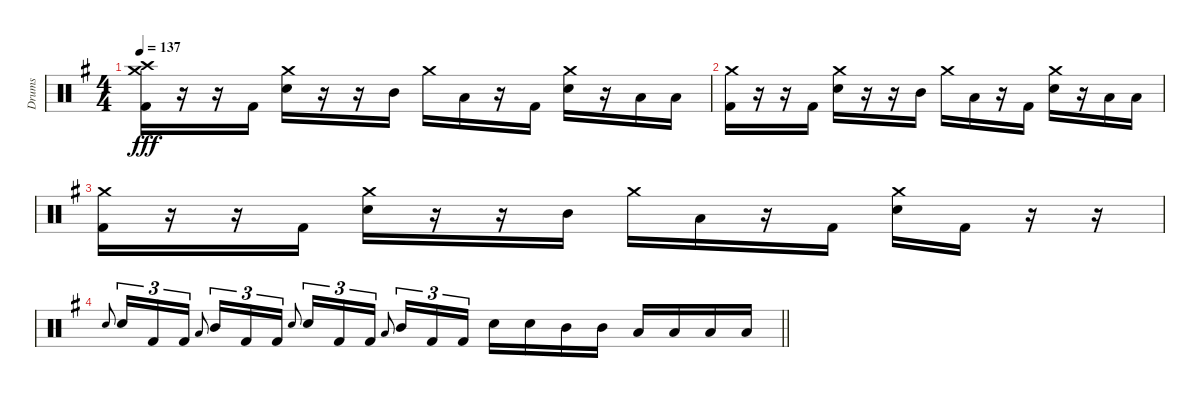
\track ("Drums" "Drums") {instrument percussion}
\staff {score}
\articulation defaults
\ts (4 4)
\tempo 137
\clef neutral
\ks eminor
("Crash medium (hit)" "Crash high (hit)" "Kick (hit) 2").16{dy fff} r.16 r.16 "Kick (hit) 2".16 ("Crash medium (hit)" "Electric Snare (hit)").16 r.16 r.16 "Mid Tom (hit)".16 "Crash medium (hit)".16 "Low Tom (hit)".16 r.16 "Kick (hit) 2".16 ("Crash medium (hit)" "Electric Snare (hit)").16 r.16 "Low Tom (hit)".16 "Low Tom (hit)".16 |
("Crash medium (hit)" "Kick (hit) 2").16 r.16 r.16 "Kick (hit) 2".16 ("Crash medium (hit)" "Electric Snare (hit)").16 r.16 r.16 "Mid Tom (hit)".16 "Crash medium (hit)".16 "Low Tom (hit)".16 r.16 "Kick (hit) 2".16 ("Crash medium (hit)" "Electric Snare (hit)").16 r.16 "Low Tom (hit)".16 "Low Tom (hit)".16 |
("Crash medium (hit)" "Kick (hit) 2").16 r.16 r.16 "Kick (hit) 2".16 ("Crash medium (hit)" "Electric Snare (hit)").16 r.16 r.16 "Mid Tom (hit)".16 "Crash medium (hit)".16 "Low Tom (hit)".16 r.16 "Kick (hit) 2".16 ("Crash medium (hit)" "Electric Snare (hit)").16 "Kick (hit) 2".16 r.16 r.16 |
\barLineRight lightlight "Electric Snare (hit)".8{gr onbeat} "Electric Snare (hit)".16{tu (3 2)} "Kick (hit) 2".16{tu (3 2)} "Kick (hit) 2".16{tu (3 2)} "Low Tom (hit)".8{gr onbeat beam splitsecondary} "Mid Tom (hit)".16{tu (3 2)} "Kick (hit) 2".16{tu (3 2)} "Kick (hit) 2".16{tu (3 2)} "Electric Snare (hit)".8{gr onbeat} "Electric Snare (hit)".16{tu (3 2)} "Kick (hit) 2".16{tu (3 2)} "Kick (hit) 2".16{tu (3 2)} "Low Tom (hit)".8{gr onbeat beam splitsecondary} "Mid Tom (hit)".16{tu (3 2)} "Kick (hit) 2".16{tu (3 2)} "Kick (hit) 2".16{tu (3 2)} "Electric Snare (hit)".16 "Electric Snare (hit)".16 "Mid Tom (hit)".16 "Mid Tom (hit)".16 "Low Floor Tom (hit)".16 "Low Floor Tom (hit)".16 "Low Floor Tom (hit)".16 "Low Floor Tom (hit)".16
